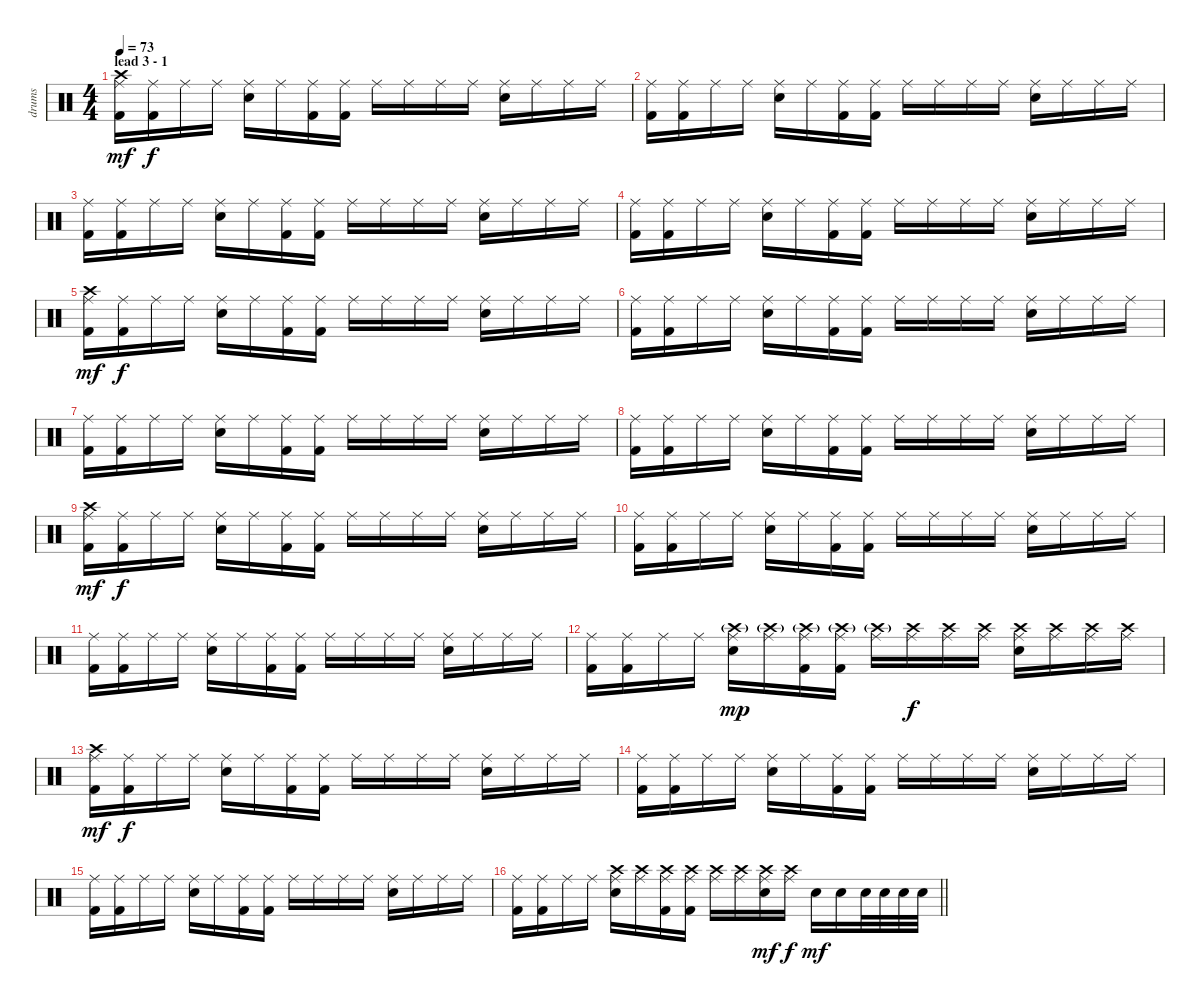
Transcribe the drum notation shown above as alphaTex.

\track ("drums" "drums") {instrument percussion}
\staff {score}
\articulation defaults
\ts (4 4)
\section ("" "lead 3 - 1")
\tempo 73
\clef neutral
\ks c
("Kick (hit) 2" "Ride (middle)" "Crash high (hit)").16{dy mf} ("Kick (hit) 2" "Ride (middle)").16{dy f} "Ride (middle)".16 "Ride (middle)".16 ("Electric Snare (hit)" "Ride (middle)").16 "Ride (middle)".16 ("Kick (hit) 2" "Ride (middle)").16 ("Kick (hit) 2" "Ride (middle)").16 "Ride (middle)".16 "Ride (middle)".16 "Ride (middle)".16 "Ride (middle)".16 ("Electric Snare (hit)" "Ride (middle)").16 "Ride (middle)".16 "Ride (middle)".16 "Ride (middle)".16 |
("Kick (hit) 2" "Ride (middle)").16 ("Kick (hit) 2" "Ride (middle)").16 "Ride (middle)".16 "Ride (middle)".16 ("Electric Snare (hit)" "Ride (middle)").16 "Ride (middle)".16 ("Kick (hit) 2" "Ride (middle)").16 ("Kick (hit) 2" "Ride (middle)").16 "Ride (middle)".16 "Ride (middle)".16 "Ride (middle)".16 "Ride (middle)".16 ("Electric Snare (hit)" "Ride (middle)").16 "Ride (middle)".16 "Ride (middle)".16 "Ride (middle)".16 |
("Kick (hit) 2" "Ride (middle)").16 ("Kick (hit) 2" "Ride (middle)").16 "Ride (middle)".16 "Ride (middle)".16 ("Electric Snare (hit)" "Ride (middle)").16 "Ride (middle)".16 ("Kick (hit) 2" "Ride (middle)").16 ("Kick (hit) 2" "Ride (middle)").16 "Ride (middle)".16 "Ride (middle)".16 "Ride (middle)".16 "Ride (middle)".16 ("Electric Snare (hit)" "Ride (middle)").16 "Ride (middle)".16 "Ride (middle)".16 "Ride (middle)".16 |
("Kick (hit) 2" "Ride (middle)").16 ("Kick (hit) 2" "Ride (middle)").16 "Ride (middle)".16 "Ride (middle)".16 ("Electric Snare (hit)" "Ride (middle)").16 "Ride (middle)".16 ("Kick (hit) 2" "Ride (middle)").16 ("Kick (hit) 2" "Ride (middle)").16 "Ride (middle)".16 "Ride (middle)".16 "Ride (middle)".16 "Ride (middle)".16 ("Electric Snare (hit)" "Ride (middle)").16 "Ride (middle)".16 "Ride (middle)".16 "Ride (middle)".16 |
("Kick (hit) 2" "Ride (middle)" "Crash high (hit)").16{dy mf} ("Kick (hit) 2" "Ride (middle)").16{dy f} "Ride (middle)".16 "Ride (middle)".16 ("Electric Snare (hit)" "Ride (middle)").16 "Ride (middle)".16 ("Kick (hit) 2" "Ride (middle)").16 ("Kick (hit) 2" "Ride (middle)").16 "Ride (middle)".16 "Ride (middle)".16 "Ride (middle)".16 "Ride (middle)".16 ("Electric Snare (hit)" "Ride (middle)").16 "Ride (middle)".16 "Ride (middle)".16 "Ride (middle)".16 |
("Kick (hit) 2" "Ride (middle)").16 ("Kick (hit) 2" "Ride (middle)").16 "Ride (middle)".16 "Ride (middle)".16 ("Electric Snare (hit)" "Ride (middle)").16 "Ride (middle)".16 ("Kick (hit) 2" "Ride (middle)").16 ("Kick (hit) 2" "Ride (middle)").16 "Ride (middle)".16 "Ride (middle)".16 "Ride (middle)".16 "Ride (middle)".16 ("Electric Snare (hit)" "Ride (middle)").16 "Ride (middle)".16 "Ride (middle)".16 "Ride (middle)".16 |
("Kick (hit) 2" "Ride (middle)").16 ("Kick (hit) 2" "Ride (middle)").16 "Ride (middle)".16 "Ride (middle)".16 ("Electric Snare (hit)" "Ride (middle)").16 "Ride (middle)".16 ("Kick (hit) 2" "Ride (middle)").16 ("Kick (hit) 2" "Ride (middle)").16 "Ride (middle)".16 "Ride (middle)".16 "Ride (middle)".16 "Ride (middle)".16 ("Electric Snare (hit)" "Ride (middle)").16 "Ride (middle)".16 "Ride (middle)".16 "Ride (middle)".16 |
("Kick (hit) 2" "Ride (middle)").16 ("Kick (hit) 2" "Ride (middle)").16 "Ride (middle)".16 "Ride (middle)".16 ("Electric Snare (hit)" "Ride (middle)").16 "Ride (middle)".16 ("Kick (hit) 2" "Ride (middle)").16 ("Kick (hit) 2" "Ride (middle)").16 "Ride (middle)".16 "Ride (middle)".16 "Ride (middle)".16 "Ride (middle)".16 ("Electric Snare (hit)" "Ride (middle)").16 "Ride (middle)".16 "Ride (middle)".16 "Ride (middle)".16 |
("Kick (hit) 2" "Ride (middle)" "Crash high (hit)").16{dy mf} ("Kick (hit) 2" "Ride (middle)").16{dy f} "Ride (middle)".16 "Ride (middle)".16 ("Electric Snare (hit)" "Ride (middle)").16 "Ride (middle)".16 ("Kick (hit) 2" "Ride (middle)").16 ("Kick (hit) 2" "Ride (middle)").16 "Ride (middle)".16 "Ride (middle)".16 "Ride (middle)".16 "Ride (middle)".16 ("Electric Snare (hit)" "Ride (middle)").16 "Ride (middle)".16 "Ride (middle)".16 "Ride (middle)".16 |
("Kick (hit) 2" "Ride (middle)").16 ("Kick (hit) 2" "Ride (middle)").16 "Ride (middle)".16 "Ride (middle)".16 ("Electric Snare (hit)" "Ride (middle)").16 "Ride (middle)".16 ("Kick (hit) 2" "Ride (middle)").16 ("Kick (hit) 2" "Ride (middle)").16 "Ride (middle)".16 "Ride (middle)".16 "Ride (middle)".16 "Ride (middle)".16 ("Electric Snare (hit)" "Ride (middle)").16 "Ride (middle)".16 "Ride (middle)".16 "Ride (middle)".16 |
("Kick (hit) 2" "Ride (middle)").16 ("Kick (hit) 2" "Ride (middle)").16 "Ride (middle)".16 "Ride (middle)".16 ("Electric Snare (hit)" "Ride (middle)").16 "Ride (middle)".16 ("Kick (hit) 2" "Ride (middle)").16 ("Kick (hit) 2" "Ride (middle)").16 "Ride (middle)".16 "Ride (middle)".16 "Ride (middle)".16 "Ride (middle)".16 ("Electric Snare (hit)" "Ride (middle)").16 "Ride (middle)".16 "Ride (middle)".16 "Ride (middle)".16 |
("Kick (hit) 2" "Ride (middle)").16 ("Kick (hit) 2" "Ride (middle)").16 "Ride (middle)".16 "Ride (middle)".16 ("Electric Snare (hit)" "Ride (middle)" "Crash high (hit)"{g}).16{dy mp} ("Ride (middle)" "Crash high (hit)"{g}).16 ("Kick (hit) 2" "Ride (middle)" "Crash high (hit)"{g}).16 ("Kick (hit) 2" "Ride (middle)" "Crash high (hit)"{g}).16 ("Ride (middle)" "Crash high (hit)"{g}).16 ("Ride (middle)" "Crash high (hit)").16{dy f} ("Ride (middle)" "Crash high (hit)").16 ("Ride (middle)" "Crash high (hit)").16 ("Electric Snare (hit)" "Ride (middle)" "Crash high (hit)").16 ("Ride (middle)" "Crash high (hit)").16 ("Ride (middle)" "Crash high (hit)").16 ("Ride (middle)" "Crash high (hit)").16 |
("Kick (hit) 2" "Ride (middle)" "Crash high (hit)").16{dy mf} ("Kick (hit) 2" "Ride (middle)").16{dy f} "Ride (middle)".16 "Ride (middle)".16 ("Electric Snare (hit)" "Ride (middle)").16 "Ride (middle)".16 ("Kick (hit) 2" "Ride (middle)").16 ("Kick (hit) 2" "Ride (middle)").16 "Ride (middle)".16 "Ride (middle)".16 "Ride (middle)".16 "Ride (middle)".16 ("Electric Snare (hit)" "Ride (middle)").16 "Ride (middle)".16 "Ride (middle)".16 "Ride (middle)".16 |
("Kick (hit) 2" "Ride (middle)").16 ("Kick (hit) 2" "Ride (middle)").16 "Ride (middle)".16 "Ride (middle)".16 ("Electric Snare (hit)" "Ride (middle)").16 "Ride (middle)".16 ("Kick (hit) 2" "Ride (middle)").16 ("Kick (hit) 2" "Ride (middle)").16 "Ride (middle)".16 "Ride (middle)".16 "Ride (middle)".16 "Ride (middle)".16 ("Electric Snare (hit)" "Ride (middle)").16 "Ride (middle)".16 "Ride (middle)".16 "Ride (middle)".16 |
("Kick (hit) 2" "Ride (middle)").16 ("Kick (hit) 2" "Ride (middle)").16 "Ride (middle)".16 "Ride (middle)".16 ("Electric Snare (hit)" "Ride (middle)").16 "Ride (middle)".16 ("Kick (hit) 2" "Ride (middle)").16 ("Kick (hit) 2" "Ride (middle)").16 "Ride (middle)".16 "Ride (middle)".16 "Ride (middle)".16 "Ride (middle)".16 ("Electric Snare (hit)" "Ride (middle)").16 "Ride (middle)".16 "Ride (middle)".16 "Ride (middle)".16 |
\barLineRight lightlight
("Kick (hit) 2" "Ride (middle)").16 ("Kick (hit) 2" "Ride (middle)").16 "Ride (middle)".16 "Ride (middle)".16 ("Electric Snare (hit)" "Ride (middle)" "Crash high (hit)").16 ("Ride (middle)" "Crash high (hit)").16 ("Kick (hit) 2" "Ride (middle)" "Crash high (hit)").16 ("Kick (hit) 2" "Ride (middle)" "Crash high (hit)").16 ("Ride (middle)" "Crash high (hit)").16 ("Ride (middle)" "Crash high (hit)").16 ("Electric Snare (hit)" "Ride (middle)" "Crash high (hit)").16{dy mf} ("Ride (middle)" "Crash high (hit)").16{dy f} "Electric Snare (hit)".16{dy mf} "Electric Snare (hit)".16 "Electric Snare (hit)".32 "Electric Snare (hit)".32 "Electric Snare (hit)".32 "Electric Snare (hit)".32
